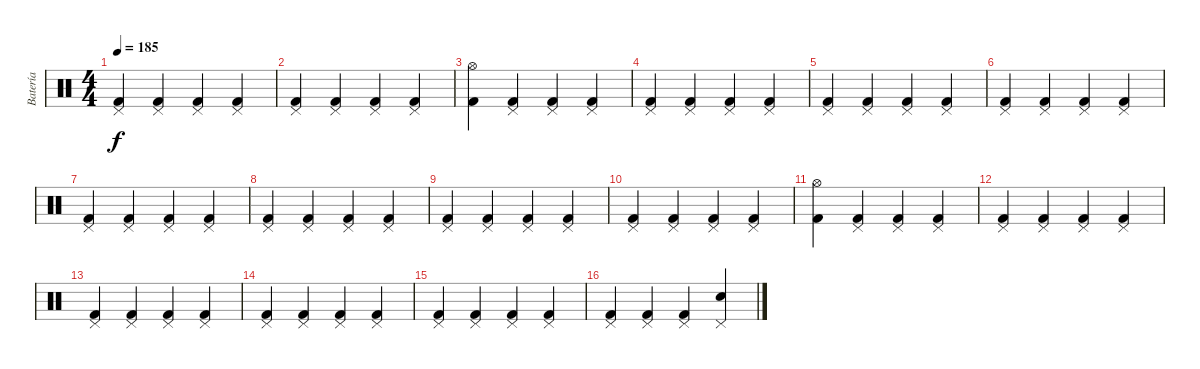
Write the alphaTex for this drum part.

\track ("Batería" "Batería") {instrument percussion}
\staff {score}
\articulation defaults
\ts (4 4)
\tempo 185
\clef neutral
\ks c
("Pedal Hi-Hat (hit)" "Kick (hit) 2").4{dy f} ("Pedal Hi-Hat (hit)" "Kick (hit) 2").4 ("Pedal Hi-Hat (hit)" "Kick (hit) 2").4 ("Pedal Hi-Hat (hit)" "Kick (hit) 2").4 |
("Pedal Hi-Hat (hit)" "Kick (hit) 2").4 ("Pedal Hi-Hat (hit)" "Kick (hit) 2").4 ("Pedal Hi-Hat (hit)" "Kick (hit) 2").4 ("Pedal Hi-Hat (hit)" "Kick (hit) 2").4 |
("Hi-Hat (open)" "Kick (hit) 2").4 ("Pedal Hi-Hat (hit)" "Kick (hit) 2").4 ("Pedal Hi-Hat (hit)" "Kick (hit) 2").4 ("Pedal Hi-Hat (hit)" "Kick (hit) 2").4 |
("Pedal Hi-Hat (hit)" "Kick (hit) 2").4 ("Pedal Hi-Hat (hit)" "Kick (hit) 2").4 ("Pedal Hi-Hat (hit)" "Kick (hit) 2").4 ("Pedal Hi-Hat (hit)" "Kick (hit) 2").4 |
("Pedal Hi-Hat (hit)" "Kick (hit) 2").4 ("Pedal Hi-Hat (hit)" "Kick (hit) 2").4 ("Pedal Hi-Hat (hit)" "Kick (hit) 2").4 ("Pedal Hi-Hat (hit)" "Kick (hit) 2").4 |
("Pedal Hi-Hat (hit)" "Kick (hit) 2").4 ("Pedal Hi-Hat (hit)" "Kick (hit) 2").4 ("Pedal Hi-Hat (hit)" "Kick (hit) 2").4 ("Pedal Hi-Hat (hit)" "Kick (hit) 2").4 |
("Pedal Hi-Hat (hit)" "Kick (hit) 2").4 ("Pedal Hi-Hat (hit)" "Kick (hit) 2").4 ("Pedal Hi-Hat (hit)" "Kick (hit) 2").4 ("Pedal Hi-Hat (hit)" "Kick (hit) 2").4 |
("Pedal Hi-Hat (hit)" "Kick (hit) 2").4 ("Pedal Hi-Hat (hit)" "Kick (hit) 2").4 ("Pedal Hi-Hat (hit)" "Kick (hit) 2").4 ("Pedal Hi-Hat (hit)" "Kick (hit) 2").4 |
("Pedal Hi-Hat (hit)" "Kick (hit) 2").4 ("Pedal Hi-Hat (hit)" "Kick (hit) 2").4 ("Pedal Hi-Hat (hit)" "Kick (hit) 2").4 ("Pedal Hi-Hat (hit)" "Kick (hit) 2").4 |
("Pedal Hi-Hat (hit)" "Kick (hit) 2").4 ("Pedal Hi-Hat (hit)" "Kick (hit) 2").4 ("Pedal Hi-Hat (hit)" "Kick (hit) 2").4 ("Pedal Hi-Hat (hit)" "Kick (hit) 2").4 |
("Hi-Hat (open)" "Kick (hit) 2").4 ("Pedal Hi-Hat (hit)" "Kick (hit) 2").4 ("Pedal Hi-Hat (hit)" "Kick (hit) 2").4 ("Pedal Hi-Hat (hit)" "Kick (hit) 2").4 |
("Pedal Hi-Hat (hit)" "Kick (hit) 2").4 ("Pedal Hi-Hat (hit)" "Kick (hit) 2").4 ("Pedal Hi-Hat (hit)" "Kick (hit) 2").4 ("Pedal Hi-Hat (hit)" "Kick (hit) 2").4 |
("Pedal Hi-Hat (hit)" "Kick (hit) 2").4 ("Pedal Hi-Hat (hit)" "Kick (hit) 2").4 ("Pedal Hi-Hat (hit)" "Kick (hit) 2").4 ("Pedal Hi-Hat (hit)" "Kick (hit) 2").4 |
("Pedal Hi-Hat (hit)" "Kick (hit) 2").4 ("Pedal Hi-Hat (hit)" "Kick (hit) 2").4 ("Pedal Hi-Hat (hit)" "Kick (hit) 2").4 ("Pedal Hi-Hat (hit)" "Kick (hit) 2").4 |
("Pedal Hi-Hat (hit)" "Kick (hit) 2").4 ("Pedal Hi-Hat (hit)" "Kick (hit) 2").4 ("Pedal Hi-Hat (hit)" "Kick (hit) 2").4 ("Pedal Hi-Hat (hit)" "Kick (hit) 2").4 |
("Pedal Hi-Hat (hit)" "Kick (hit) 2").4 ("Pedal Hi-Hat (hit)" "Kick (hit) 2").4 ("Pedal Hi-Hat (hit)" "Kick (hit) 2").4 ("Pedal Hi-Hat (hit)" "Snare (hit) 2").4
